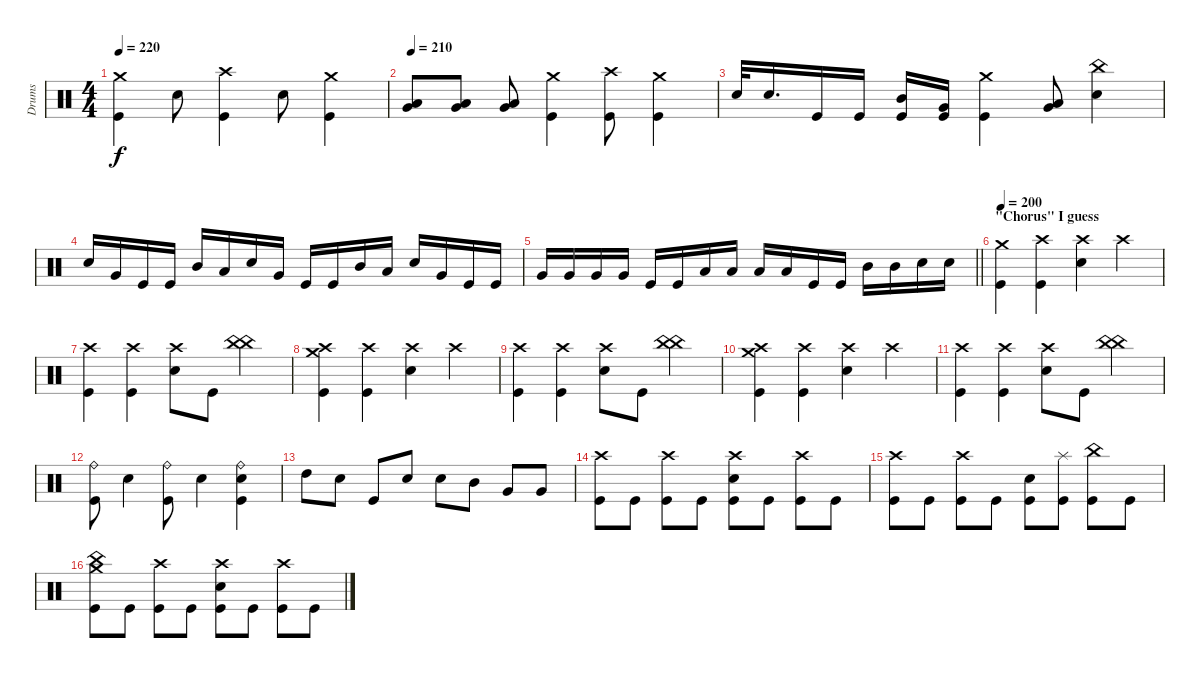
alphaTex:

\track ("Drums" "Drums") {instrument percussion}
\staff {score}
\articulation defaults
\ts (4 4)
\tempo 220
\clef neutral
\ks c
("Crash medium (hit)" "Kick (hit)").4{dy f} "Electric Snare (hit)".8 ("Crash high (hit)" "Kick (hit)").4 "Electric Snare (hit)".8 ("Crash medium (hit)" "Kick (hit)").4 |
\tempo 210
("Low Tom (hit)" "Very Low Tom (hit)").8 ("Low Tom (hit)" "Very Low Tom (hit)").8 ("Low Tom (hit)" "Very Low Tom (hit)").8 ("Crash medium (hit)" "Kick (hit)").4 ("Crash high (hit)" "Kick (hit)").8 ("Crash medium (hit)" "Kick (hit)").4 |
"Electric Snare (hit)".32 "Electric Snare (hit)".16{d} "Kick (hit)".16 "Kick (hit)".16 ("Mid Tom (hit)" "Kick (hit)").16 ("Very Low Tom (hit)" "Kick (hit)").16 ("Crash medium (hit)" "Kick (hit)").4 ("Low Tom (hit)" "Very Low Tom (hit)").8 ("China (hit)" "Electric Snare (hit)").4 |
"Electric Snare (hit)".16 "Very Low Tom (hit)".16 "Kick (hit)".16 "Kick (hit)".16 "Mid Tom (hit)".16 "Low Tom (hit)".16 "Electric Snare (hit)".16 "Very Low Tom (hit)".16 "Kick (hit)".16 "Kick (hit)".16 "Mid Tom (hit)".16 "Low Tom (hit)".16 "Electric Snare (hit)".16 "Very Low Tom (hit)".16 "Kick (hit)".16 "Kick (hit)".16 |
\barLineRight lightlight "Very Low Tom (hit)".16 "Very Low Tom (hit)".16 "Very Low Tom (hit)".16 "Very Low Tom (hit)".16 "Kick (hit)".16 "Kick (hit)".16 "Low Tom (hit)".16 "Low Tom (hit)".16 "Low Tom (hit)".16 "Low Tom (hit)".16 "Kick (hit)".16 "Kick (hit)".16 "Mid Tom (hit)".16 "Mid Tom (hit)".16 "Electric Snare (hit)".16 "Electric Snare (hit)".16
|
\section ("" "\"Chorus\" I guess")
\tempo 200
("Crash medium (hit)" "Kick (hit)").4 ("Crash high (hit)" "Kick (hit)").4 ("Crash high (hit)" "Electric Snare (hit)").4 "Crash high (hit)".4 |
("Crash high (hit)" "Kick (hit)").4 ("Crash high (hit)" "Kick (hit)").4 ("Crash high (hit)" "Electric Snare (hit)").8 "Kick (hit)".8 ("China (hit)" "China (hit)").4 |
("Crash medium (hit)" "Crash high (hit)" "Kick (hit)").4 ("Crash high (hit)" "Kick (hit)").4 ("Crash high (hit)" "Electric Snare (hit)").4 "Crash high (hit)".4 |
("Crash high (hit)" "Kick (hit)").4 ("Crash high (hit)" "Kick (hit)").4 ("Crash high (hit)" "Electric Snare (hit)").8 "Kick (hit)".8 ("China (hit)" "China (hit)").4 |
("Crash medium (hit)" "Crash high (hit)" "Kick (hit)").4 ("Crash high (hit)" "Kick (hit)").4 ("Crash high (hit)" "Electric Snare (hit)").4 "Crash high (hit)".4 |
("Crash high (hit)" "Kick (hit)").4 ("Crash high (hit)" "Kick (hit)").4 ("Crash high (hit)" "Electric Snare (hit)").8 "Kick (hit)".8 ("China (hit)" "China (hit)").4 |
("Ride (bell)" "Kick (hit)").8 "Electric Snare (hit)".4 ("Ride (bell)" "Kick (hit)").8 "Electric Snare (hit)".4 ("Ride (bell)" "Electric Snare (hit)" "Kick (hit)").4 |
"High Tom (hit)".8 "Electric Snare (hit)".8 "Kick (hit)".8 "Electric Snare (hit)".8 "Electric Snare (hit)".8 "Mid Tom (hit)".8 "Very Low Tom (hit)".8 "Very Low Tom (hit)".8 |
("Crash high (hit)" "Kick (hit)").8 "Kick (hit)".8 ("Crash high (hit)" "Kick (hit)").8 "Kick (hit)".8 ("Crash high (hit)" "Electric Snare (hit)" "Kick (hit)").8 "Kick (hit)".8 ("Crash high (hit)" "Kick (hit)").8 "Kick (hit)".8 |
("Crash high (hit)" "Kick (hit)").8 "Kick (hit)".8 ("Crash high (hit)" "Kick (hit)").8 "Kick (hit)".8 ("Electric Snare (hit)" "Kick (hit)").8 ("Splash (hit)" "Kick (hit)").8 ("China (hit)" "Kick (hit)").8 "Kick (hit)".8 |
("Crash medium (hit)" "China (hit)" "Kick (hit)").8 "Kick (hit)".8 ("Crash high (hit)" "Kick (hit)").8 "Kick (hit)".8 ("Crash high (hit)" "Electric Snare (hit)" "Kick (hit)").8 "Kick (hit)".8 ("Crash high (hit)" "Kick (hit)").8 "Kick (hit)".8
